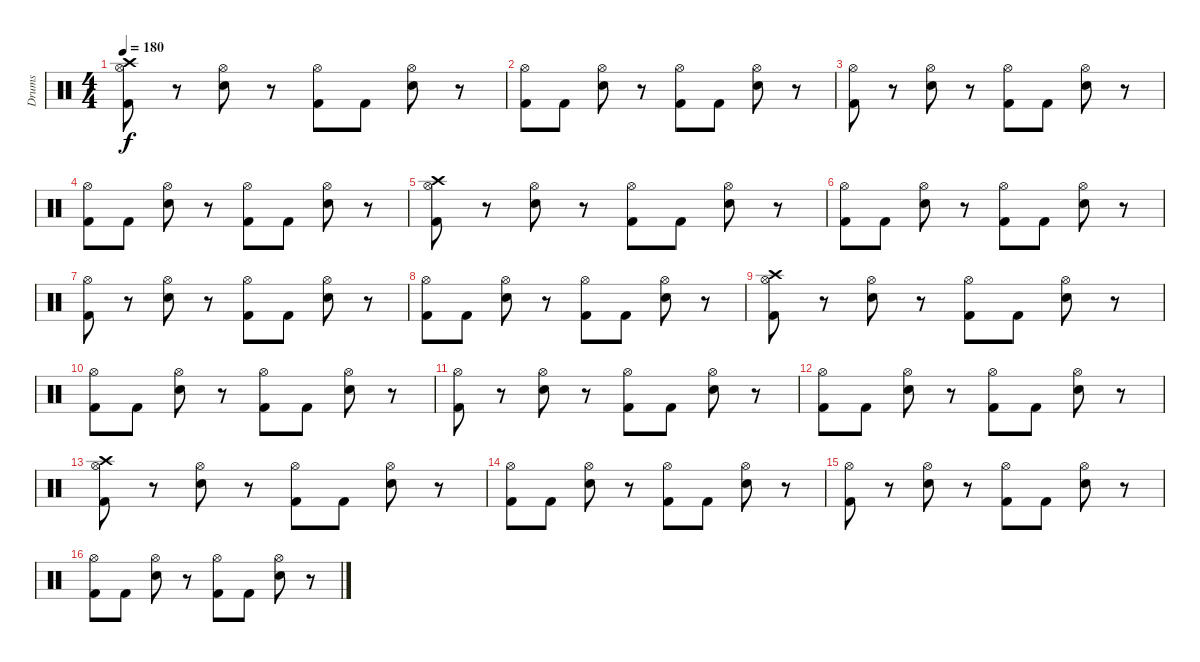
\track ("Drums" "Drums") {instrument percussion}
\staff {score}
\articulation defaults
\ts (4 4)
\tempo 180
\clef neutral
\ks c
("Crash high (hit)" "Hi-Hat (open)" "Kick (hit) 2").8{dy f} r.8 ("Hi-Hat (open)" "Snare (hit) 2").8 r.8 ("Hi-Hat (open)" "Kick (hit) 2").8 "Kick (hit) 2".8 ("Hi-Hat (open)" "Snare (hit) 2").8 r.8 |
("Hi-Hat (open)" "Kick (hit) 2").8 "Kick (hit) 2".8 ("Hi-Hat (open)" "Snare (hit) 2").8 r.8 ("Hi-Hat (open)" "Kick (hit) 2").8 "Kick (hit) 2".8 ("Hi-Hat (open)" "Snare (hit) 2").8 r.8 |
("Hi-Hat (open)" "Kick (hit) 2").8 r.8 ("Hi-Hat (open)" "Snare (hit) 2").8 r.8 ("Hi-Hat (open)" "Kick (hit) 2").8 "Kick (hit) 2".8 ("Hi-Hat (open)" "Snare (hit) 2").8 r.8 |
("Hi-Hat (open)" "Kick (hit) 2").8 "Kick (hit) 2".8 ("Hi-Hat (open)" "Snare (hit) 2").8 r.8 ("Hi-Hat (open)" "Kick (hit) 2").8 "Kick (hit) 2".8 ("Hi-Hat (open)" "Snare (hit) 2").8 r.8 |
("Crash high (hit)" "Hi-Hat (open)" "Kick (hit) 2").8 r.8 ("Hi-Hat (open)" "Snare (hit) 2").8 r.8 ("Hi-Hat (open)" "Kick (hit) 2").8 "Kick (hit) 2".8 ("Hi-Hat (open)" "Snare (hit) 2").8 r.8 |
("Hi-Hat (open)" "Kick (hit) 2").8 "Kick (hit) 2".8 ("Hi-Hat (open)" "Snare (hit) 2").8 r.8 ("Hi-Hat (open)" "Kick (hit) 2").8 "Kick (hit) 2".8 ("Hi-Hat (open)" "Snare (hit) 2").8 r.8 |
("Hi-Hat (open)" "Kick (hit) 2").8 r.8 ("Hi-Hat (open)" "Snare (hit) 2").8 r.8 ("Hi-Hat (open)" "Kick (hit) 2").8 "Kick (hit) 2".8 ("Hi-Hat (open)" "Snare (hit) 2").8 r.8 |
("Hi-Hat (open)" "Kick (hit) 2").8 "Kick (hit) 2".8 ("Hi-Hat (open)" "Snare (hit) 2").8 r.8 ("Hi-Hat (open)" "Kick (hit) 2").8 "Kick (hit) 2".8 ("Hi-Hat (open)" "Snare (hit) 2").8 r.8 |
("Crash high (hit)" "Hi-Hat (open)" "Kick (hit) 2").8 r.8 ("Hi-Hat (open)" "Snare (hit) 2").8 r.8 ("Hi-Hat (open)" "Kick (hit) 2").8 "Kick (hit) 2".8 ("Hi-Hat (open)" "Snare (hit) 2").8 r.8 |
("Hi-Hat (open)" "Kick (hit) 2").8 "Kick (hit) 2".8 ("Hi-Hat (open)" "Snare (hit) 2").8 r.8 ("Hi-Hat (open)" "Kick (hit) 2").8 "Kick (hit) 2".8 ("Hi-Hat (open)" "Snare (hit) 2").8 r.8 |
("Hi-Hat (open)" "Kick (hit) 2").8 r.8 ("Hi-Hat (open)" "Snare (hit) 2").8 r.8 ("Hi-Hat (open)" "Kick (hit) 2").8 "Kick (hit) 2".8 ("Hi-Hat (open)" "Snare (hit) 2").8 r.8 |
("Hi-Hat (open)" "Kick (hit) 2").8 "Kick (hit) 2".8 ("Hi-Hat (open)" "Snare (hit) 2").8 r.8 ("Hi-Hat (open)" "Kick (hit) 2").8 "Kick (hit) 2".8 ("Hi-Hat (open)" "Snare (hit) 2").8 r.8 |
("Crash high (hit)" "Hi-Hat (open)" "Kick (hit) 2").8 r.8 ("Hi-Hat (open)" "Snare (hit) 2").8 r.8 ("Hi-Hat (open)" "Kick (hit) 2").8 "Kick (hit) 2".8 ("Hi-Hat (open)" "Snare (hit) 2").8 r.8 |
("Hi-Hat (open)" "Kick (hit) 2").8 "Kick (hit) 2".8 ("Hi-Hat (open)" "Snare (hit) 2").8 r.8 ("Hi-Hat (open)" "Kick (hit) 2").8 "Kick (hit) 2".8 ("Hi-Hat (open)" "Snare (hit) 2").8 r.8 |
("Hi-Hat (open)" "Kick (hit) 2").8 r.8 ("Hi-Hat (open)" "Snare (hit) 2").8 r.8 ("Hi-Hat (open)" "Kick (hit) 2").8 "Kick (hit) 2".8 ("Hi-Hat (open)" "Snare (hit) 2").8 r.8 |
("Hi-Hat (open)" "Kick (hit) 2").8 "Kick (hit) 2".8 ("Hi-Hat (open)" "Snare (hit) 2").8 r.8 ("Hi-Hat (open)" "Kick (hit) 2").8 "Kick (hit) 2".8 ("Hi-Hat (open)" "Snare (hit) 2").8 r.8
